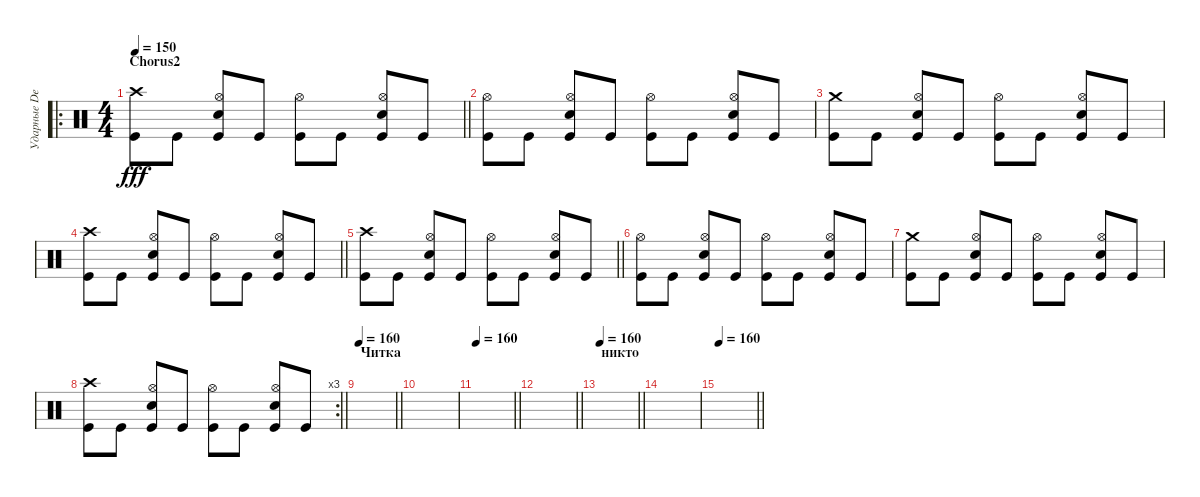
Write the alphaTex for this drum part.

\track ("Ударные Den" "Ударные De") {instrument percussion}
\staff {score}
\articulation defaults
\ro
\ts (4 4)
\section ("" "Chorus2")
\tempo 150
\clef neutral
\barLineRight lightlight
\ks c
("Crash high (hit)" "Kick (hit)").8{dy fff} "Kick (hit)".8 ("Hi-Hat (open)" "Electric Snare (hit)" "Kick (hit)").8 "Kick (hit)".8 ("Hi-Hat (open)" "Kick (hit)").8 "Kick (hit)".8 ("Hi-Hat (open)" "Electric Snare (hit)" "Kick (hit)").8 "Kick (hit)".8 |
("Hi-Hat (open)" "Kick (hit)").8 "Kick (hit)".8 ("Hi-Hat (open)" "Electric Snare (hit)" "Kick (hit)").8 "Kick (hit)".8 ("Hi-Hat (open)" "Kick (hit)").8 "Kick (hit)".8 ("Hi-Hat (open)" "Electric Snare (hit)" "Kick (hit)").8 "Kick (hit)".8 |
("Crash medium (hit)" "Kick (hit)").8 "Kick (hit)".8 ("Hi-Hat (open)" "Electric Snare (hit)" "Kick (hit)").8 "Kick (hit)".8 ("Hi-Hat (open)" "Kick (hit)").8 "Kick (hit)".8 ("Hi-Hat (open)" "Electric Snare (hit)" "Kick (hit)").8 "Kick (hit)".8 |
\barLineRight lightlight
("Crash high (hit)" "Kick (hit)").8 "Kick (hit)".8 ("Hi-Hat (open)" "Electric Snare (hit)" "Kick (hit)").8 "Kick (hit)".8 ("Hi-Hat (open)" "Kick (hit)").8 "Kick (hit)".8 ("Hi-Hat (open)" "Electric Snare (hit)" "Kick (hit)").8 "Kick (hit)".8 |
\barLineRight lightlight
("Crash high (hit)" "Kick (hit)").8 "Kick (hit)".8 ("Hi-Hat (open)" "Electric Snare (hit)" "Kick (hit)").8 "Kick (hit)".8 ("Hi-Hat (open)" "Kick (hit)").8 "Kick (hit)".8 ("Hi-Hat (open)" "Electric Snare (hit)" "Kick (hit)").8 "Kick (hit)".8 |
("Hi-Hat (open)" "Kick (hit)").8 "Kick (hit)".8 ("Hi-Hat (open)" "Electric Snare (hit)" "Kick (hit)").8 "Kick (hit)".8 ("Hi-Hat (open)" "Kick (hit)").8 "Kick (hit)".8 ("Hi-Hat (open)" "Electric Snare (hit)" "Kick (hit)").8 "Kick (hit)".8 |
("Crash medium (hit)" "Kick (hit)").8 "Kick (hit)".8 ("Hi-Hat (open)" "Electric Snare (hit)" "Kick (hit)").8 "Kick (hit)".8 ("Hi-Hat (open)" "Kick (hit)").8 "Kick (hit)".8 ("Hi-Hat (open)" "Electric Snare (hit)" "Kick (hit)").8 "Kick (hit)".8 |
\rc 3
\barLineRight lightlight
("Crash high (hit)" "Kick (hit)").8 "Kick (hit)".8 ("Hi-Hat (open)" "Electric Snare (hit)" "Kick (hit)").8 "Kick (hit)".8 ("Hi-Hat (open)" "Kick (hit)").8 "Kick (hit)".8 ("Hi-Hat (open)" "Electric Snare (hit)" "Kick (hit)").8 "Kick (hit)".8 |
\section ("" "Читка")
\tempo 160
\barLineRight lightlight
|
|
\tempo 160
\barLineRight lightlight
|
\barLineRight lightlight
|
\section ("" "никто")
\tempo 160
\barLineRight lightlight
|
|
\tempo 160
\barLineRight lightlight
